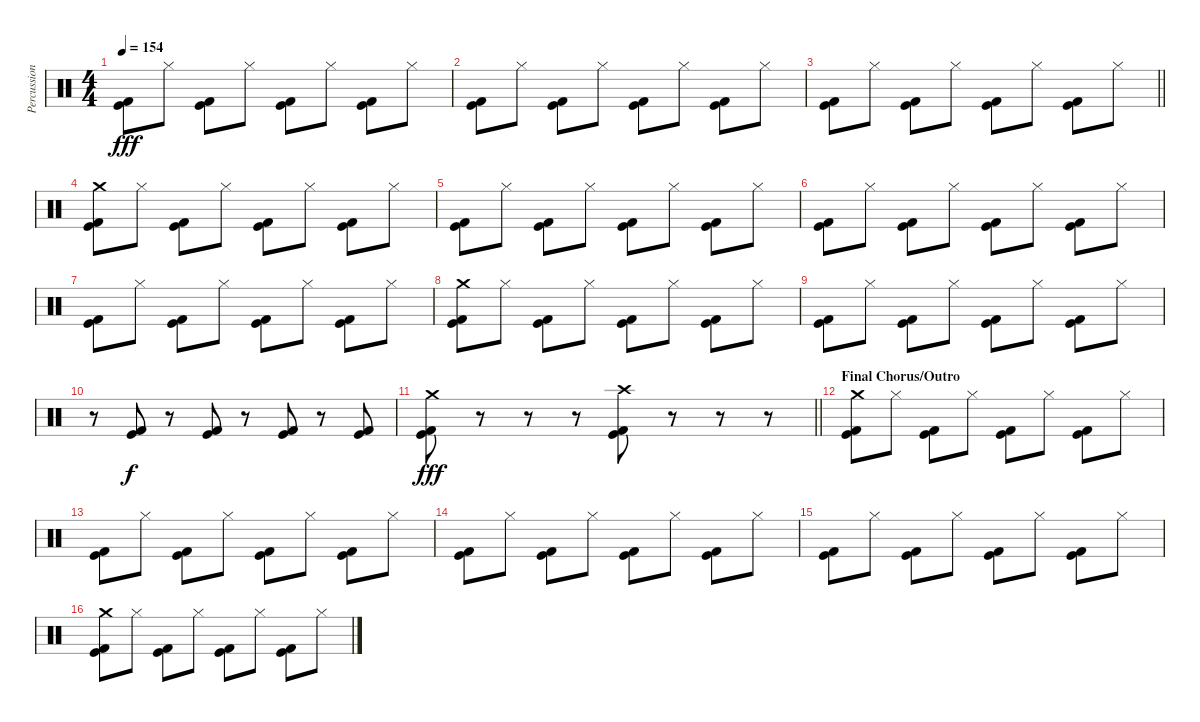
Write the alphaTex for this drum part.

\track ("Percussion" "Percussion") {instrument percussion}
\staff {score}
\articulation defaults
\ts (4 4)
\tempo 154
\clef neutral
\ks c
("Kick (hit)" "Kick (hit) 2").8{dy fff} "Hi-Hat (closed)".8 ("Kick (hit)" "Kick (hit) 2").8 "Hi-Hat (closed)".8 ("Kick (hit)" "Kick (hit) 2").8 "Hi-Hat (closed)".8 ("Kick (hit)" "Kick (hit) 2").8 "Hi-Hat (closed)".8 |
("Kick (hit)" "Kick (hit) 2").8 "Hi-Hat (closed)".8 ("Kick (hit)" "Kick (hit) 2").8 "Hi-Hat (closed)".8 ("Kick (hit)" "Kick (hit) 2").8 "Hi-Hat (closed)".8 ("Kick (hit)" "Kick (hit) 2").8 "Hi-Hat (closed)".8 |
\barLineRight lightlight
("Kick (hit)" "Kick (hit) 2").8 "Hi-Hat (closed)".8 ("Kick (hit)" "Kick (hit) 2").8 "Hi-Hat (closed)".8 ("Kick (hit)" "Kick (hit) 2").8 "Hi-Hat (closed)".8 ("Kick (hit)" "Kick (hit) 2").8 "Hi-Hat (closed)".8 |
("Crash medium (hit)" "Kick (hit)" "Kick (hit) 2").8 "Hi-Hat (closed)".8 ("Kick (hit)" "Kick (hit) 2").8 "Hi-Hat (closed)".8 ("Kick (hit)" "Kick (hit) 2").8 "Hi-Hat (closed)".8 ("Kick (hit)" "Kick (hit) 2").8 "Hi-Hat (closed)".8 |
("Kick (hit)" "Kick (hit) 2").8 "Hi-Hat (closed)".8 ("Kick (hit)" "Kick (hit) 2").8 "Hi-Hat (closed)".8 ("Kick (hit)" "Kick (hit) 2").8 "Hi-Hat (closed)".8 ("Kick (hit)" "Kick (hit) 2").8 "Hi-Hat (closed)".8 |
("Kick (hit)" "Kick (hit) 2").8 "Hi-Hat (closed)".8 ("Kick (hit)" "Kick (hit) 2").8 "Hi-Hat (closed)".8 ("Kick (hit)" "Kick (hit) 2").8 "Hi-Hat (closed)".8 ("Kick (hit)" "Kick (hit) 2").8 "Hi-Hat (closed)".8 |
("Kick (hit)" "Kick (hit) 2").8 "Hi-Hat (closed)".8 ("Kick (hit)" "Kick (hit) 2").8 "Hi-Hat (closed)".8 ("Kick (hit)" "Kick (hit) 2").8 "Hi-Hat (closed)".8 ("Kick (hit)" "Kick (hit) 2").8 "Hi-Hat (closed)".8 |
("Crash medium (hit)" "Kick (hit)" "Kick (hit) 2").8 "Hi-Hat (closed)".8 ("Kick (hit)" "Kick (hit) 2").8 "Hi-Hat (closed)".8 ("Kick (hit)" "Kick (hit) 2").8 "Hi-Hat (closed)".8 ("Kick (hit)" "Kick (hit) 2").8 "Hi-Hat (closed)".8 |
("Kick (hit)" "Kick (hit) 2").8 "Hi-Hat (closed)".8 ("Kick (hit)" "Kick (hit) 2").8 "Hi-Hat (closed)".8 ("Kick (hit)" "Kick (hit) 2").8 "Hi-Hat (closed)".8 ("Kick (hit)" "Kick (hit) 2").8 "Hi-Hat (closed)".8 |
r.8 ("Kick (hit)" "Kick (hit) 2").8{dy f} r.8 ("Kick (hit)" "Kick (hit) 2").8 r.8 ("Kick (hit)" "Kick (hit) 2").8 r.8 ("Kick (hit)" "Kick (hit) 2").8 |
\barLineRight lightlight
("Crash medium (hit)" "Kick (hit)" "Kick (hit) 2").8{dy fff} r.8 r.8 r.8 ("Crash high (hit)" "Kick (hit)" "Kick (hit) 2").8 r.8 r.8 r.8 |
\section ("" "Final Chorus/Outro")
("Crash medium (hit)" "Kick (hit)" "Kick (hit) 2").8 "Hi-Hat (closed)".8 ("Kick (hit)" "Kick (hit) 2").8 "Hi-Hat (closed)".8 ("Kick (hit)" "Kick (hit) 2").8 "Hi-Hat (closed)".8 ("Kick (hit)" "Kick (hit) 2").8 "Hi-Hat (closed)".8 |
("Kick (hit)" "Kick (hit) 2").8 "Hi-Hat (closed)".8 ("Kick (hit)" "Kick (hit) 2").8 "Hi-Hat (closed)".8 ("Kick (hit)" "Kick (hit) 2").8 "Hi-Hat (closed)".8 ("Kick (hit)" "Kick (hit) 2").8 "Hi-Hat (closed)".8 |
("Kick (hit)" "Kick (hit) 2").8 "Hi-Hat (closed)".8 ("Kick (hit)" "Kick (hit) 2").8 "Hi-Hat (closed)".8 ("Kick (hit)" "Kick (hit) 2").8 "Hi-Hat (closed)".8 ("Kick (hit)" "Kick (hit) 2").8 "Hi-Hat (closed)".8 |
("Kick (hit)" "Kick (hit) 2").8 "Hi-Hat (closed)".8 ("Kick (hit)" "Kick (hit) 2").8 "Hi-Hat (closed)".8 ("Kick (hit)" "Kick (hit) 2").8 "Hi-Hat (closed)".8 ("Kick (hit)" "Kick (hit) 2").8 "Hi-Hat (closed)".8 |
("Crash medium (hit)" "Kick (hit)" "Kick (hit) 2").8 "Hi-Hat (closed)".8 ("Kick (hit)" "Kick (hit) 2").8 "Hi-Hat (closed)".8 ("Kick (hit)" "Kick (hit) 2").8 "Hi-Hat (closed)".8 ("Kick (hit)" "Kick (hit) 2").8 "Hi-Hat (closed)".8
